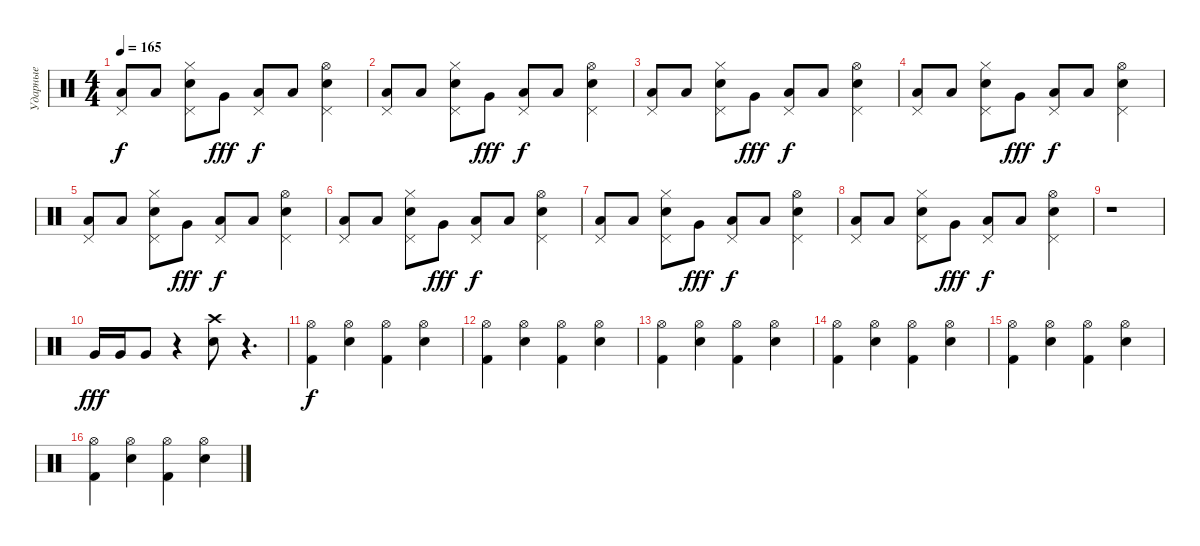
\track ("Ударные" "Ударные") {instrument percussion}
\staff {score}
\articulation defaults
\ts (4 4)
\tempo 165
\clef neutral
\ks c
("Pedal Hi-Hat (hit)" "Low Floor Tom (hit)").8{dy f} "Low Floor Tom (hit)".8 ("Pedal Hi-Hat (hit)" "Electric Snare (hit)" "Hi-Hat (closed)").8 "Very Low Tom (hit)".8{dy fff} ("Pedal Hi-Hat (hit)" "Low Floor Tom (hit)").8{dy f} "Low Floor Tom (hit)".8 ("Pedal Hi-Hat (hit)" "Electric Snare (hit)" "Hi-Hat (open)").4 |
("Pedal Hi-Hat (hit)" "Low Floor Tom (hit)").8 "Low Floor Tom (hit)".8 ("Pedal Hi-Hat (hit)" "Electric Snare (hit)" "Hi-Hat (closed)").8 "Very Low Tom (hit)".8{dy fff} ("Pedal Hi-Hat (hit)" "Low Floor Tom (hit)").8{dy f} "Low Floor Tom (hit)".8 ("Pedal Hi-Hat (hit)" "Electric Snare (hit)" "Hi-Hat (open)").4 |
("Pedal Hi-Hat (hit)" "Low Floor Tom (hit)").8 "Low Floor Tom (hit)".8 ("Pedal Hi-Hat (hit)" "Electric Snare (hit)" "Hi-Hat (closed)").8 "Very Low Tom (hit)".8{dy fff} ("Pedal Hi-Hat (hit)" "Low Floor Tom (hit)").8{dy f} "Low Floor Tom (hit)".8 ("Pedal Hi-Hat (hit)" "Electric Snare (hit)" "Hi-Hat (open)").4 |
("Pedal Hi-Hat (hit)" "Low Floor Tom (hit)").8 "Low Floor Tom (hit)".8 ("Pedal Hi-Hat (hit)" "Electric Snare (hit)" "Hi-Hat (closed)").8 "Very Low Tom (hit)".8{dy fff} ("Pedal Hi-Hat (hit)" "Low Floor Tom (hit)").8{dy f} "Low Floor Tom (hit)".8 ("Pedal Hi-Hat (hit)" "Electric Snare (hit)" "Hi-Hat (open)").4 |
("Pedal Hi-Hat (hit)" "Low Floor Tom (hit)").8 "Low Floor Tom (hit)".8 ("Pedal Hi-Hat (hit)" "Electric Snare (hit)" "Hi-Hat (closed)").8 "Very Low Tom (hit)".8{dy fff} ("Pedal Hi-Hat (hit)" "Low Floor Tom (hit)").8{dy f} "Low Floor Tom (hit)".8 ("Pedal Hi-Hat (hit)" "Electric Snare (hit)" "Hi-Hat (open)").4 |
("Pedal Hi-Hat (hit)" "Low Floor Tom (hit)").8 "Low Floor Tom (hit)".8 ("Pedal Hi-Hat (hit)" "Electric Snare (hit)" "Hi-Hat (closed)").8 "Very Low Tom (hit)".8{dy fff} ("Pedal Hi-Hat (hit)" "Low Floor Tom (hit)").8{dy f} "Low Floor Tom (hit)".8 ("Electric Snare (hit)" "Pedal Hi-Hat (hit)" "Hi-Hat (open)").4 |
("Pedal Hi-Hat (hit)" "Low Floor Tom (hit)").8 "Low Floor Tom (hit)".8 ("Pedal Hi-Hat (hit)" "Electric Snare (hit)" "Hi-Hat (closed)").8 "Very Low Tom (hit)".8{dy fff} ("Pedal Hi-Hat (hit)" "Low Floor Tom (hit)").8{dy f} "Low Floor Tom (hit)".8 ("Pedal Hi-Hat (hit)" "Electric Snare (hit)" "Hi-Hat (open)").4 |
("Pedal Hi-Hat (hit)" "Low Floor Tom (hit)").8 "Low Floor Tom (hit)".8 ("Pedal Hi-Hat (hit)" "Electric Snare (hit)" "Hi-Hat (closed)").8 "Very Low Tom (hit)".8{dy fff} ("Pedal Hi-Hat (hit)" "Low Floor Tom (hit)").8{dy f} "Low Floor Tom (hit)".8 ("Electric Snare (hit)" "Pedal Hi-Hat (hit)" "Hi-Hat (open)").4 |
r.1 |
"Very Low Tom (hit)".16{dy fff} "Very Low Tom (hit)".16 "Very Low Tom (hit)".8 r.4 ("Crash high (hit)" "Electric Snare (hit)").8 r.4{d} |
("Hi-Hat (open)" "Kick (hit) 2").4{dy f} ("Snare (hit) 2" "Hi-Hat (open)").4 ("Kick (hit) 2" "Hi-Hat (open)").4 ("Snare (hit) 2" "Hi-Hat (open)").4 |
("Hi-Hat (open)" "Kick (hit) 2").4 ("Hi-Hat (open)" "Snare (hit) 2").4 ("Hi-Hat (open)" "Kick (hit) 2").4 ("Hi-Hat (open)" "Snare (hit) 2").4 |
("Hi-Hat (open)" "Kick (hit) 2").4 ("Snare (hit) 2" "Hi-Hat (open)").4 ("Kick (hit) 2" "Hi-Hat (open)").4 ("Snare (hit) 2" "Hi-Hat (open)").4 |
("Kick (hit) 2" "Hi-Hat (open)").4 ("Hi-Hat (open)" "Snare (hit) 2").4 ("Hi-Hat (open)" "Kick (hit) 2").4 ("Hi-Hat (open)" "Snare (hit) 2").4 |
("Hi-Hat (open)" "Kick (hit) 2").4 ("Snare (hit) 2" "Hi-Hat (open)").4 ("Kick (hit) 2" "Hi-Hat (open)").4 ("Snare (hit) 2" "Hi-Hat (open)").4 |
("Kick (hit) 2" "Hi-Hat (open)").4 ("Hi-Hat (open)" "Snare (hit) 2").4 ("Hi-Hat (open)" "Kick (hit) 2").4 ("Hi-Hat (open)" "Snare (hit) 2").4
